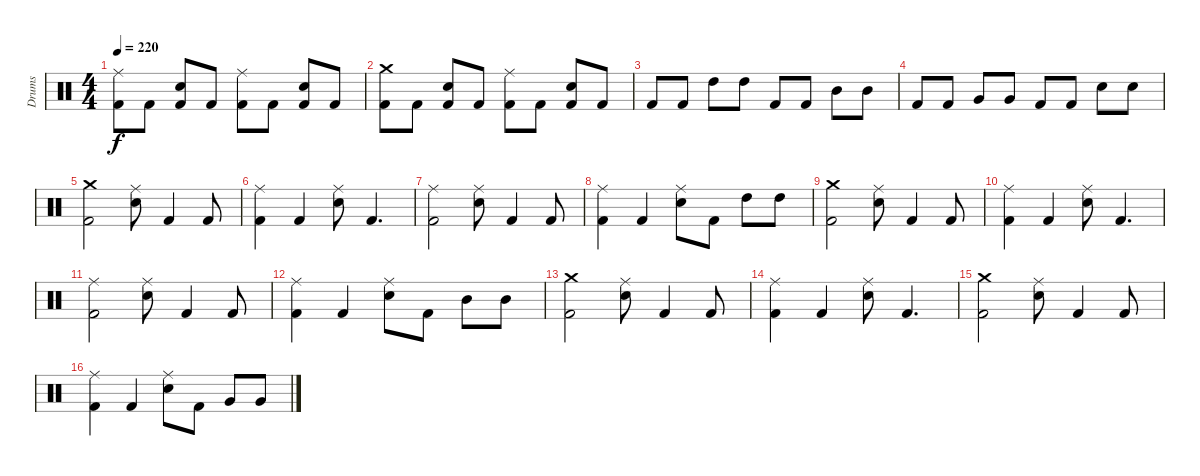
\track ("Drums" "Drums") {instrument percussion}
\staff {score}
\articulation defaults
\ts (4 4)
\tempo 220
\clef neutral
\ks c
("Kick (hit) 2" "Ride (middle)").8{dy f} "Kick (hit) 2".8 ("Kick (hit) 2" "Snare (hit) 2").8 "Kick (hit) 2".8 ("Kick (hit) 2" "Ride (middle)").8 "Kick (hit) 2".8 ("Kick (hit) 2" "Snare (hit) 2").8 "Kick (hit) 2".8 |
("Kick (hit) 2" "Crash medium (hit)").8 "Kick (hit) 2".8 ("Kick (hit) 2" "Snare (hit) 2").8 "Kick (hit) 2".8 ("Kick (hit) 2" "Ride (middle)").8 "Kick (hit) 2".8 ("Kick (hit) 2" "Snare (hit) 2").8 "Kick (hit) 2".8 |
"Kick (hit) 2".8 "Kick (hit) 2".8 "High Tom (hit)".8 "High Tom (hit)".8 "Kick (hit) 2".8 "Kick (hit) 2".8 "Mid Tom (hit)".8 "Mid Tom (hit)".8 |
"Kick (hit) 2".8 "Kick (hit) 2".8 "Very Low Tom (hit)".8 "Very Low Tom (hit)".8 "Kick (hit) 2".8 "Kick (hit) 2".8 "Snare (hit) 2".8 "Snare (hit) 2".8 |
("Kick (hit) 2" "Crash medium (hit)").2 ("Snare (hit) 2" "Ride (middle)").8 "Kick (hit) 2".4 "Kick (hit) 2".8 |
("Kick (hit) 2" "Ride (middle)").4 "Kick (hit) 2".4 ("Snare (hit) 2" "Ride (middle)").8 "Kick (hit) 2".4{d} |
("Kick (hit) 2" "Ride (middle)").2 ("Snare (hit) 2" "Ride (middle)").8 "Kick (hit) 2".4 "Kick (hit) 2".8 |
("Kick (hit) 2" "Ride (middle)").4 "Kick (hit) 2".4 ("Snare (hit) 2" "Ride (middle)").8 "Kick (hit) 2".8 "High Tom (hit)".8 "High Tom (hit)".8 |
("Kick (hit) 2" "Crash medium (hit)").2 ("Snare (hit) 2" "Ride (middle)").8 "Kick (hit) 2".4 "Kick (hit) 2".8 |
("Kick (hit) 2" "Ride (middle)").4 "Kick (hit) 2".4 ("Snare (hit) 2" "Ride (middle)").8 "Kick (hit) 2".4{d} |
("Kick (hit) 2" "Ride (middle)").2 ("Snare (hit) 2" "Ride (middle)").8 "Kick (hit) 2".4 "Kick (hit) 2".8 |
("Kick (hit) 2" "Ride (middle)").4 "Kick (hit) 2".4 ("Snare (hit) 2" "Ride (middle)").8 "Kick (hit) 2".8 "Mid Tom (hit)".8 "Mid Tom (hit)".8 |
("Kick (hit) 2" "Crash medium (hit)").2 ("Snare (hit) 2" "Ride (middle)").8 "Kick (hit) 2".4 "Kick (hit) 2".8 |
("Kick (hit) 2" "Ride (middle)").4 "Kick (hit) 2".4 ("Snare (hit) 2" "Ride (middle)").8 "Kick (hit) 2".4{d} |
("Kick (hit) 2" "Crash medium (hit)").2 ("Snare (hit) 2" "Ride (middle)").8 "Kick (hit) 2".4 "Kick (hit) 2".8 |
("Kick (hit) 2" "Ride (middle)").4 "Kick (hit) 2".4 ("Snare (hit) 2" "Ride (middle)").8 "Kick (hit) 2".8 "Very Low Tom (hit)".8 "Very Low Tom (hit)".8
